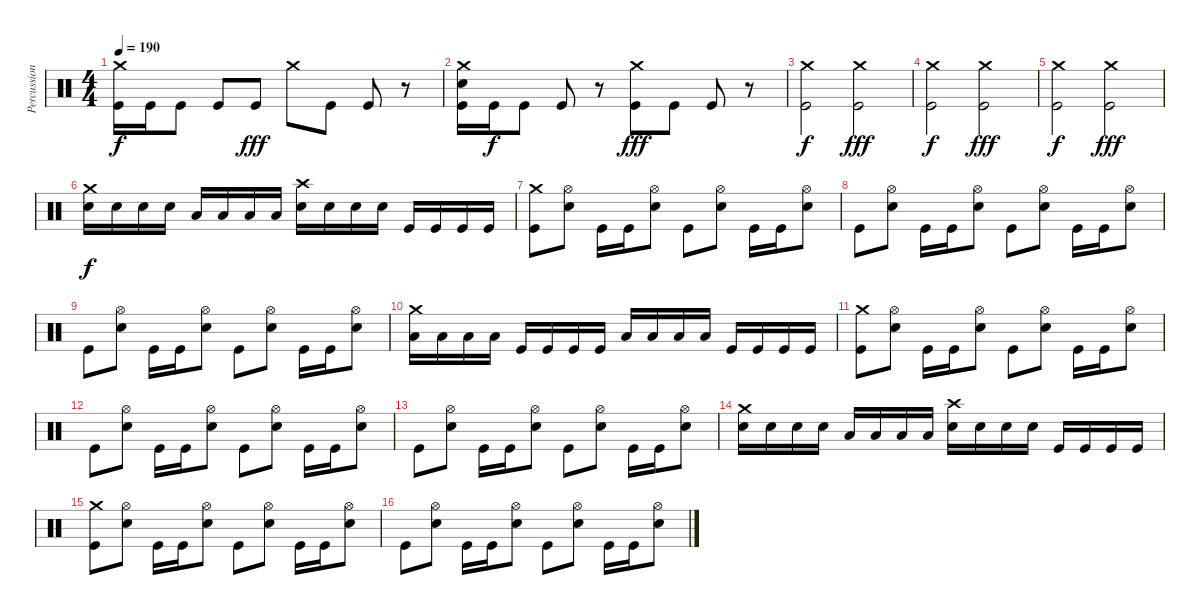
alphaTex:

\track ("Percussion" "Percussion") {instrument percussion}
\staff {score}
\articulation defaults
\ts (4 4)
\tempo 190
\clef neutral
\ks c
("Crash medium (hit)" "Kick (hit)").16{dy f} "Kick (hit)".16 "Kick (hit)".8 "Kick (hit)".8 "Kick (hit)".8{dy fff} "Crash medium (hit)".8 "Kick (hit)".8 "Kick (hit)".8 r.8 |
("Crash medium (hit)" "Electric Snare (hit)" "Kick (hit)").16 "Kick (hit)".16{dy f} "Kick (hit)".8 "Kick (hit)".8 r.8 ("Crash medium (hit)" "Kick (hit)").8{dy fff} "Kick (hit)".8 "Kick (hit)".8 r.8 |
("Crash medium (hit)" "Kick (hit)").2{dy f} ("Crash medium (hit)" "Kick (hit)").2{dy fff} |
("Crash medium (hit)" "Kick (hit)").2{dy f} ("Crash medium (hit)" "Kick (hit)").2{dy fff} |
("Crash medium (hit)" "Kick (hit)").2{dy f} ("Crash medium (hit)" "Kick (hit)").2{dy fff} |
("Crash medium (hit)" "Electric Snare (hit)").16{dy f} "Electric Snare (hit)".16 "Electric Snare (hit)".16 "Electric Snare (hit)".16 "Low Tom (hit)".16 "Low Tom (hit)".16 "Low Tom (hit)".16 "Low Tom (hit)".16 ("Crash high (hit)" "Electric Snare (hit)").16 "Electric Snare (hit)".16 "Electric Snare (hit)".16 "Electric Snare (hit)".16 "Kick (hit)".16 "Kick (hit)".16 "Kick (hit)".16 "Kick (hit)".16 |
("Crash medium (hit)" "Kick (hit)").8 ("Hi-Hat (open)" "Electric Snare (hit)").8 "Kick (hit)".16 "Kick (hit)".16 ("Hi-Hat (open)" "Electric Snare (hit)").8 "Kick (hit)".8 ("Hi-Hat (open)" "Electric Snare (hit)").8 "Kick (hit)".16 "Kick (hit)".16 ("Hi-Hat (open)" "Electric Snare (hit)").8 |
"Kick (hit)".8 ("Hi-Hat (open)" "Electric Snare (hit)").8 "Kick (hit)".16 "Kick (hit)".16 ("Hi-Hat (open)" "Electric Snare (hit)").8 "Kick (hit)".8 ("Hi-Hat (open)" "Electric Snare (hit)").8 "Kick (hit)".16 "Kick (hit)".16 ("Hi-Hat (open)" "Electric Snare (hit)").8 |
"Kick (hit)".8 ("Hi-Hat (open)" "Electric Snare (hit)").8 "Kick (hit)".16 "Kick (hit)".16 ("Hi-Hat (open)" "Electric Snare (hit)").8 "Kick (hit)".8 ("Hi-Hat (open)" "Electric Snare (hit)").8 "Kick (hit)".16 "Kick (hit)".16 ("Hi-Hat (open)" "Electric Snare (hit)").8 |
("Crash medium (hit)" "Low Tom (hit)").16 "Low Tom (hit)".16 "Low Tom (hit)".16 "Low Tom (hit)".16 "Kick (hit)".16 "Kick (hit)".16 "Kick (hit)".16 "Kick (hit)".16 "Low Tom (hit)".16 "Low Tom (hit)".16 "Low Tom (hit)".16 "Low Tom (hit)".16 "Kick (hit)".16 "Kick (hit)".16 "Kick (hit)".16 "Kick (hit)".16 |
("Crash medium (hit)" "Kick (hit)").8 ("Hi-Hat (open)" "Electric Snare (hit)").8 "Kick (hit)".16 "Kick (hit)".16 ("Hi-Hat (open)" "Electric Snare (hit)").8 "Kick (hit)".8 ("Hi-Hat (open)" "Electric Snare (hit)").8 "Kick (hit)".16 "Kick (hit)".16 ("Hi-Hat (open)" "Electric Snare (hit)").8 |
"Kick (hit)".8 ("Hi-Hat (open)" "Electric Snare (hit)").8 "Kick (hit)".16 "Kick (hit)".16 ("Hi-Hat (open)" "Electric Snare (hit)").8 "Kick (hit)".8 ("Hi-Hat (open)" "Electric Snare (hit)").8 "Kick (hit)".16 "Kick (hit)".16 ("Hi-Hat (open)" "Electric Snare (hit)").8 |
"Kick (hit)".8 ("Hi-Hat (open)" "Electric Snare (hit)").8 "Kick (hit)".16 "Kick (hit)".16 ("Hi-Hat (open)" "Electric Snare (hit)").8 "Kick (hit)".8 ("Hi-Hat (open)" "Electric Snare (hit)").8 "Kick (hit)".16 "Kick (hit)".16 ("Hi-Hat (open)" "Electric Snare (hit)").8 |
("Crash medium (hit)" "Electric Snare (hit)").16 "Electric Snare (hit)".16 "Electric Snare (hit)".16 "Electric Snare (hit)".16 "Low Tom (hit)".16 "Low Tom (hit)".16 "Low Tom (hit)".16 "Low Tom (hit)".16 ("Crash high (hit)" "Electric Snare (hit)").16 "Electric Snare (hit)".16 "Electric Snare (hit)".16 "Electric Snare (hit)".16 "Kick (hit)".16 "Kick (hit)".16 "Kick (hit)".16 "Kick (hit)".16 |
("Crash medium (hit)" "Kick (hit)").8 ("Hi-Hat (open)" "Electric Snare (hit)").8 "Kick (hit)".16 "Kick (hit)".16 ("Hi-Hat (open)" "Electric Snare (hit)").8 "Kick (hit)".8 ("Hi-Hat (open)" "Electric Snare (hit)").8 "Kick (hit)".16 "Kick (hit)".16 ("Hi-Hat (open)" "Electric Snare (hit)").8 |
"Kick (hit)".8 ("Hi-Hat (open)" "Electric Snare (hit)").8 "Kick (hit)".16 "Kick (hit)".16 ("Hi-Hat (open)" "Electric Snare (hit)").8 "Kick (hit)".8 ("Hi-Hat (open)" "Electric Snare (hit)").8 "Kick (hit)".16 "Kick (hit)".16 ("Hi-Hat (open)" "Electric Snare (hit)").8
